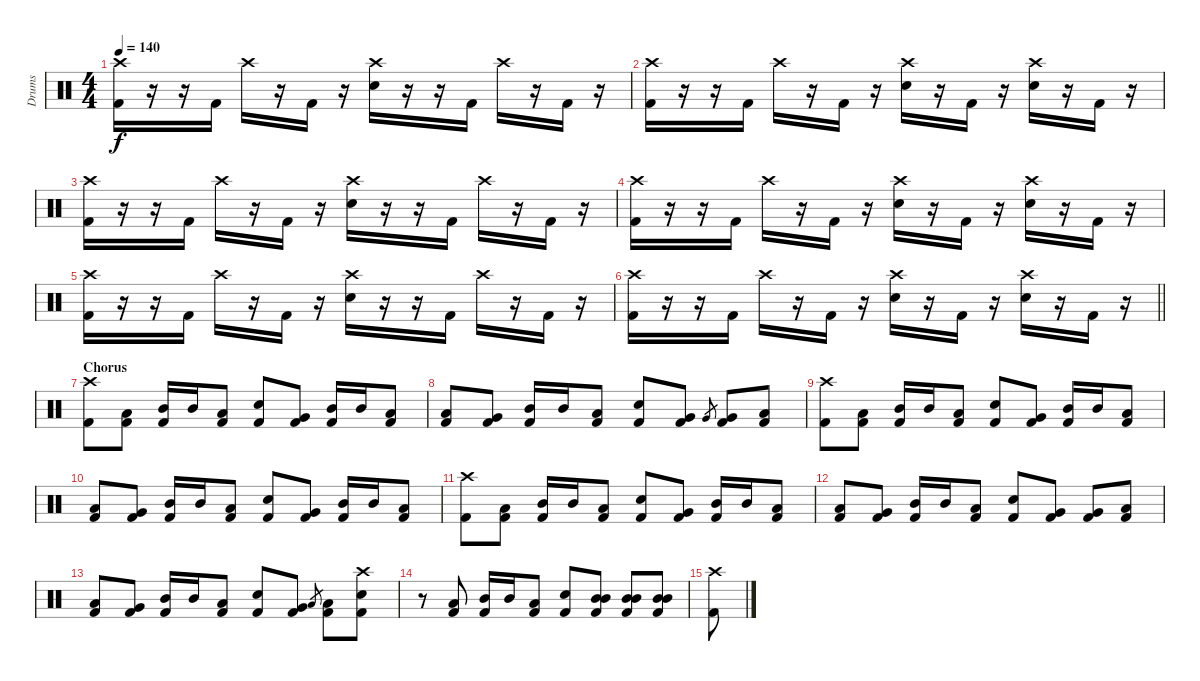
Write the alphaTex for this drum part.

\track ("Drums" "Drums") {instrument percussion}
\staff {score}
\articulation defaults
\ts (4 4)
\tempo 140
\clef neutral
\ks c
("Crash high (hit)" "Kick (hit) 2").16{dy f} r.16 r.16 "Kick (hit) 2".16 "Crash high (hit)".16 r.16 "Kick (hit) 2".16 r.16 ("Crash high (hit)" "Snare (hit) 2").16 r.16 r.16 "Kick (hit) 2".16 "Crash high (hit)".16 r.16 "Kick (hit) 2".16 r.16 |
("Crash high (hit)" "Kick (hit) 2").16 r.16 r.16 "Kick (hit) 2".16 "Crash high (hit)".16 r.16 "Kick (hit) 2".16 r.16 ("Crash high (hit)" "Snare (hit) 2").16 r.16 "Kick (hit) 2".16 r.16 ("Crash high (hit)" "Snare (hit) 2").16 r.16 "Kick (hit) 2".16 r.16 |
("Crash high (hit)" "Kick (hit) 2").16 r.16 r.16 "Kick (hit) 2".16 "Crash high (hit)".16 r.16 "Kick (hit) 2".16 r.16 ("Crash high (hit)" "Snare (hit) 2").16 r.16 r.16 "Kick (hit) 2".16 "Crash high (hit)".16 r.16 "Kick (hit) 2".16 r.16 |
("Crash high (hit)" "Kick (hit) 2").16 r.16 r.16 "Kick (hit) 2".16 "Crash high (hit)".16 r.16 "Kick (hit) 2".16 r.16 ("Crash high (hit)" "Snare (hit) 2").16 r.16 "Kick (hit) 2".16 r.16 ("Crash high (hit)" "Snare (hit) 2").16 r.16 "Kick (hit) 2".16 r.16 |
("Crash high (hit)" "Kick (hit) 2").16 r.16 r.16 "Kick (hit) 2".16 "Crash high (hit)".16 r.16 "Kick (hit) 2".16 r.16 ("Crash high (hit)" "Snare (hit) 2").16 r.16 r.16 "Kick (hit) 2".16 "Crash high (hit)".16 r.16 "Kick (hit) 2".16 r.16 |
\barLineRight lightlight
("Crash high (hit)" "Kick (hit) 2").16 r.16 r.16 "Kick (hit) 2".16 "Crash high (hit)".16 r.16 "Kick (hit) 2".16 r.16 ("Crash high (hit)" "Snare (hit) 2").16 r.16 "Kick (hit) 2".16 r.16 ("Crash high (hit)" "Snare (hit) 2").16 r.16 "Kick (hit) 2".16 r.16 |
\section ("" "Chorus")
("Crash high (hit)" "Kick (hit) 2").8 ("Low Floor Tom (hit)" "Kick (hit) 2").8 ("Mid Tom (hit)" "Kick (hit) 2").16 "Mid Tom (hit)".16 ("Low Tom (hit)" "Kick (hit) 2").8 ("Snare (hit) 2" "Kick (hit) 2").8 ("Very Low Tom (hit)" "Kick (hit) 2").8 ("Mid Tom (hit)" "Kick (hit) 2").16 "Mid Tom (hit)".16 ("Low Tom (hit)" "Kick (hit) 2").8 |
("Low Floor Tom (hit)" "Kick (hit) 2").8 ("Very Low Tom (hit)" "Kick (hit) 2").8 ("Mid Tom (hit)" "Kick (hit) 2").16 "Mid Tom (hit)".16 ("Low Tom (hit)" "Kick (hit) 2").8 ("Snare (hit) 2" "Kick (hit) 2").8 ("Very Low Tom (hit)" "Kick (hit) 2").8 "Very Low Tom (hit)".8{gr} ("Very Low Tom (hit)" "Kick (hit) 2").8 ("Low Tom (hit)" "Kick (hit) 2").8 |
("Crash high (hit)" "Kick (hit) 2").8 ("Low Floor Tom (hit)" "Kick (hit) 2").8 ("Mid Tom (hit)" "Kick (hit) 2").16 "Mid Tom (hit)".16 ("Low Tom (hit)" "Kick (hit) 2").8 ("Snare (hit) 2" "Kick (hit) 2").8 ("Very Low Tom (hit)" "Kick (hit) 2").8 ("Mid Tom (hit)" "Kick (hit) 2").16 "Mid Tom (hit)".16 ("Low Tom (hit)" "Kick (hit) 2").8 |
("Low Floor Tom (hit)" "Kick (hit) 2").8 ("Very Low Tom (hit)" "Kick (hit) 2").8 ("Mid Tom (hit)" "Kick (hit) 2").16 "Mid Tom (hit)".16 ("Low Tom (hit)" "Kick (hit) 2").8 ("Snare (hit) 2" "Kick (hit) 2").8 ("Very Low Tom (hit)" "Kick (hit) 2").8 ("Mid Tom (hit)" "Kick (hit) 2").16 "Mid Tom (hit)".16 ("Low Tom (hit)" "Kick (hit) 2").8 |
("Crash high (hit)" "Kick (hit) 2").8 ("Low Floor Tom (hit)" "Kick (hit) 2").8 ("Mid Tom (hit)" "Kick (hit) 2").16 "Mid Tom (hit)".16 ("Low Tom (hit)" "Kick (hit) 2").8 ("Snare (hit) 2" "Kick (hit) 2").8 ("Very Low Tom (hit)" "Kick (hit) 2").8 ("Mid Tom (hit)" "Kick (hit) 2").16 "Mid Tom (hit)".16 ("Low Tom (hit)" "Kick (hit) 2").8 |
("Low Floor Tom (hit)" "Kick (hit) 2").8 ("Very Low Tom (hit)" "Kick (hit) 2").8 ("Mid Tom (hit)" "Kick (hit) 2").16 "Mid Tom (hit)".16 ("Low Tom (hit)" "Kick (hit) 2").8 ("Snare (hit) 2" "Kick (hit) 2").8 ("Very Low Tom (hit)" "Kick (hit) 2").8 ("Very Low Tom (hit)" "Kick (hit) 2").8 ("Low Tom (hit)" "Kick (hit) 2").8 |
("Low Floor Tom (hit)" "Kick (hit) 2").8 ("Very Low Tom (hit)" "Kick (hit) 2").8 ("Mid Tom (hit)" "Kick (hit) 2").16 "Mid Tom (hit)".16 ("Low Tom (hit)" "Kick (hit) 2").8 ("Snare (hit) 2" "Kick (hit) 2").8 ("Very Low Tom (hit)" "Kick (hit) 2").8 "Low Tom (hit)".8{gr} ("Low Tom (hit)" "Kick (hit) 2").8 ("Crash high (hit)" "Snare (hit) 2" "Kick (hit) 2").8 |
r.8 ("Low Tom (hit)" "Kick (hit) 2").8 ("Mid Tom (hit)" "Kick (hit) 2").16 "Mid Tom (hit)".16 ("Low Tom (hit)" "Kick (hit) 2").8 ("Snare (hit) 2" "Kick (hit) 2").8 ("Mid Tom (hit)" "Mid Tom (hit)" "Kick (hit) 2").8 ("Mid Tom (hit)" "Mid Tom (hit)" "Kick (hit) 2").8 ("Mid Tom (hit)" "Mid Tom (hit)" "Kick (hit) 2").8 |
("Crash high (hit)" "Kick (hit) 2").8
